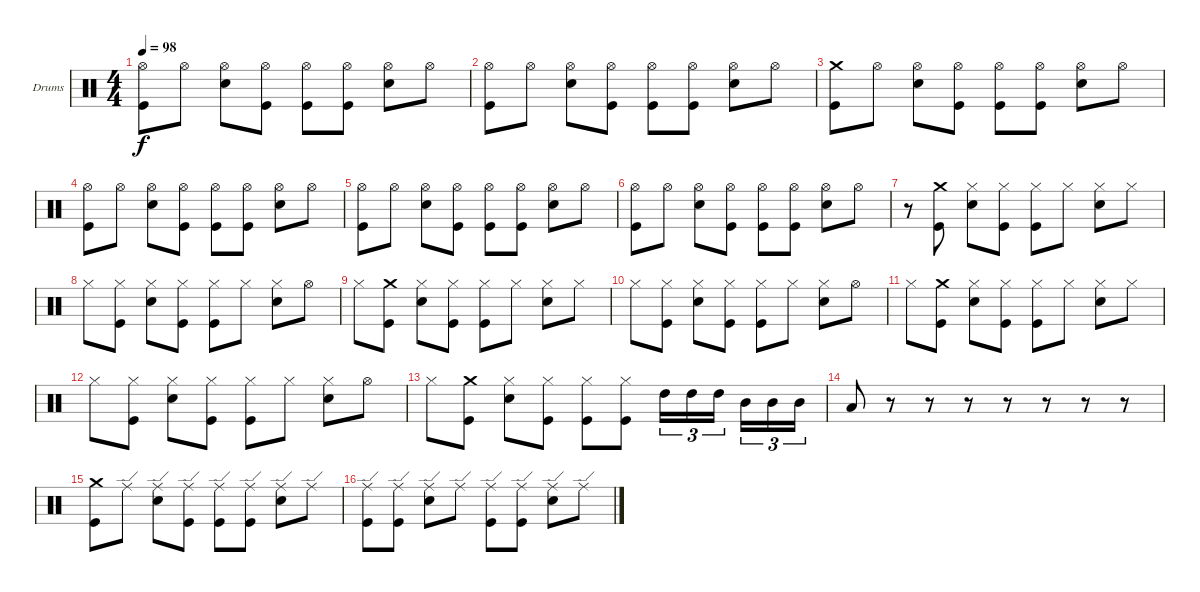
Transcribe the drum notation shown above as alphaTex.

\bracketExtendMode groupsimilarinstruments
\firstSystemTrackNameOrientation horizontal
\otherSystemsTrackNameOrientation horizontal
\track ("Drumkit" "Drums") {instrument percussion}
\staff {score}
\articulation defaults
\ts (4 4)
\tempo 98
\clef neutral
\scale
0.333333
\ks c
("Kick (hit)" "Hi-Hat (open)").8{dy f} "Hi-Hat (open)".8 ("Snare (hit) 2" "Hi-Hat (open)").8 ("Kick (hit)" "Hi-Hat (open)").8 ("Kick (hit)" "Hi-Hat (open)").8 ("Kick (hit)" "Hi-Hat (open)").8 ("Snare (hit) 2" "Hi-Hat (open)").8 "Hi-Hat (open)".8 |
\scale
0.333333 ("Kick (hit)" "Hi-Hat (open)").8 "Hi-Hat (open)".8 ("Snare (hit) 2" "Hi-Hat (open)").8 ("Kick (hit)" "Hi-Hat (open)").8 ("Kick (hit)" "Hi-Hat (open)").8 ("Kick (hit)" "Hi-Hat (open)").8 ("Snare (hit) 2" "Hi-Hat (open)").8 "Hi-Hat (open)".8 |
\scale
0.333333 ("Kick (hit)" "Crash medium (hit)").8 "Hi-Hat (open)".8 ("Snare (hit) 2" "Hi-Hat (open)").8 ("Kick (hit)" "Hi-Hat (open)").8 ("Kick (hit)" "Hi-Hat (open)").8 ("Kick (hit)" "Hi-Hat (open)").8 ("Snare (hit) 2" "Hi-Hat (open)").8 "Hi-Hat (open)".8 |
\scale
0.333333 ("Kick (hit)" "Hi-Hat (open)").8 "Hi-Hat (open)".8 ("Snare (hit) 2" "Hi-Hat (open)").8 ("Kick (hit)" "Hi-Hat (open)").8 ("Kick (hit)" "Hi-Hat (open)").8 ("Kick (hit)" "Hi-Hat (open)").8 ("Snare (hit) 2" "Hi-Hat (open)").8 "Hi-Hat (open)".8 |
\scale
0.333333 ("Kick (hit)" "Hi-Hat (open)").8 "Hi-Hat (open)".8 ("Snare (hit) 2" "Hi-Hat (open)").8 ("Kick (hit)" "Hi-Hat (open)").8 ("Kick (hit)" "Hi-Hat (open)").8 ("Kick (hit)" "Hi-Hat (open)").8 ("Snare (hit) 2" "Hi-Hat (open)").8 "Hi-Hat (open)".8 |
\scale
0.333333 ("Kick (hit)" "Hi-Hat (open)").8 "Hi-Hat (open)".8 ("Snare (hit) 2" "Hi-Hat (open)").8 ("Kick (hit)" "Hi-Hat (open)").8 ("Kick (hit)" "Hi-Hat (open)").8 ("Kick (hit)" "Hi-Hat (open)").8 ("Snare (hit) 2" "Hi-Hat (open)").8 "Hi-Hat (open)".8 |
\scale
0.333333 r.8 ("Kick (hit)" "Crash medium (hit)").8 ("Snare (hit) 2" "Hi-Hat (closed)").8 ("Kick (hit)" "Hi-Hat (closed)").8 ("Kick (hit)" "Hi-Hat (closed)").8 "Hi-Hat (closed)".8 ("Snare (hit) 2" "Hi-Hat (closed)").8 "Hi-Hat (closed)".8 |
\scale
0.333333 "Hi-Hat (closed)".8 ("Kick (hit)" "Hi-Hat (closed)").8 ("Snare (hit) 2" "Hi-Hat (closed)").8 ("Kick (hit)" "Hi-Hat (closed)").8 ("Kick (hit)" "Hi-Hat (closed)").8 "Hi-Hat (closed)".8 ("Hi-Hat (closed)" "Snare (hit) 2").8 "Hi-Hat (open)".8 |
\scale
0.333333 "Hi-Hat (closed)".8 ("Kick (hit)" "Crash medium (hit)").8 ("Snare (hit) 2" "Hi-Hat (closed)").8 ("Kick (hit)" "Hi-Hat (closed)").8 ("Kick (hit)" "Hi-Hat (closed)").8 "Hi-Hat (closed)".8 ("Snare (hit) 2" "Hi-Hat (closed)").8 "Hi-Hat (closed)".8 |
\scale
0.333333 "Hi-Hat (closed)".8 ("Kick (hit)" "Hi-Hat (closed)").8 ("Snare (hit) 2" "Hi-Hat (closed)").8 ("Kick (hit)" "Hi-Hat (closed)").8 ("Kick (hit)" "Hi-Hat (closed)").8 "Hi-Hat (closed)".8 ("Hi-Hat (closed)" "Snare (hit) 2").8 "Hi-Hat (open)".8 |
\scale
0.333333 "Hi-Hat (closed)".8 ("Kick (hit)" "Crash medium (hit)").8 ("Snare (hit) 2" "Hi-Hat (closed)").8 ("Kick (hit)" "Hi-Hat (closed)").8 ("Kick (hit)" "Hi-Hat (closed)").8 "Hi-Hat (closed)".8 ("Snare (hit) 2" "Hi-Hat (closed)").8 "Hi-Hat (closed)".8 |
\scale
0.333333 "Hi-Hat (closed)".8 ("Kick (hit)" "Hi-Hat (closed)").8 ("Snare (hit) 2" "Hi-Hat (closed)").8 ("Kick (hit)" "Hi-Hat (closed)").8 ("Kick (hit)" "Hi-Hat (closed)").8 "Hi-Hat (closed)".8 ("Hi-Hat (closed)" "Snare (hit) 2").8 "Hi-Hat (open)".8 |
\scale
0.333333 "Hi-Hat (closed)".8 ("Kick (hit)" "Crash medium (hit)").8 ("Hi-Hat (closed)" "Snare (hit) 2").8 ("Hi-Hat (closed)" "Kick (hit)").8 ("Hi-Hat (closed)" "Kick (hit)").8 ("Hi-Hat (closed)" "Kick (hit)").8 "High Tom (hit)".16{tu (3 2)} "High Tom (hit)".16{tu (3 2)} "High Tom (hit)".16{tu (3 2)} "Mid Tom (hit)".16{tu (3 2)} "Mid Tom (hit)".16{tu (3 2)} "Mid Tom (hit)".16{tu (3 2)} |
\scale
0.333333 "Low Tom (hit)".8 r.8 r.8 r.8 r.8 r.8 r.8 r.8 |
\scale
0.333333 ("Kick (hit)" "Crash medium (hit)").8 "Ride (edge)".8 ("Snare (hit) 2" "Ride (edge)").8 ("Ride (edge)" "Kick (hit)").8 ("Kick (hit)" "Ride (edge)").8 ("Kick (hit)" "Ride (edge)").8 ("Snare (hit) 2" "Ride (edge)").8 "Ride (edge)".8 |
\scale
0.333333 ("Kick (hit)" "Ride (edge)").8 ("Kick (hit)" "Ride (edge)").8 ("Snare (hit) 2" "Ride (edge)").8 "Ride (edge)".8 ("Kick (hit)" "Ride (edge)").8 ("Kick (hit)" "Ride (edge)").8 ("Snare (hit) 2" "Ride (edge)").8 "Ride (edge)".8
